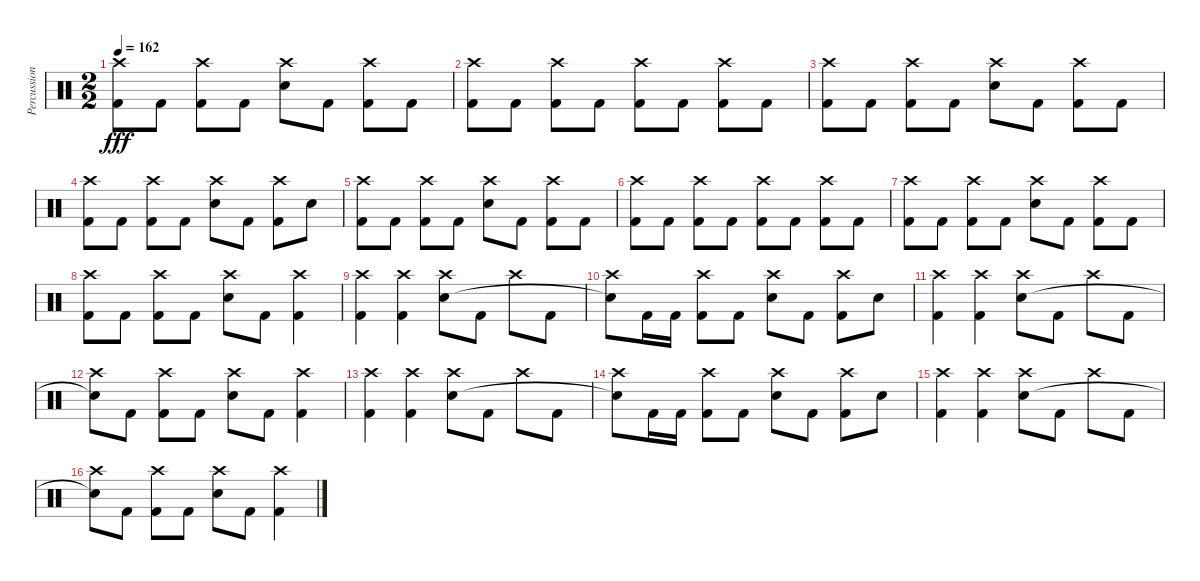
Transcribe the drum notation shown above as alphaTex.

\track ("Percussion" "Percussion") {instrument percussion}
\staff {score}
\articulation defaults
\ts (2 2)
\tempo 162
\clef neutral
\ks c
("Crash high (hit)" "Kick (hit) 2").8{dy fff} "Kick (hit) 2".8 ("Crash high (hit)" "Kick (hit) 2").8 "Kick (hit) 2".8 ("Crash high (hit)" "Snare (hit) 2").8 "Kick (hit) 2".8 ("Crash high (hit)" "Kick (hit) 2").8 "Kick (hit) 2".8 |
("Crash high (hit)" "Kick (hit) 2").8 "Kick (hit) 2".8 ("Crash high (hit)" "Kick (hit) 2").8 "Kick (hit) 2".8 ("Crash high (hit)" "Kick (hit) 2").8 "Kick (hit) 2".8 ("Crash high (hit)" "Kick (hit) 2").8 "Kick (hit) 2".8 |
("Crash high (hit)" "Kick (hit) 2").8 "Kick (hit) 2".8 ("Crash high (hit)" "Kick (hit) 2").8 "Kick (hit) 2".8 ("Crash high (hit)" "Snare (hit) 2").8 "Kick (hit) 2".8 ("Crash high (hit)" "Kick (hit) 2").8 "Kick (hit) 2".8 |
("Crash high (hit)" "Kick (hit) 2").8 "Kick (hit) 2".8 ("Crash high (hit)" "Kick (hit) 2").8 "Kick (hit) 2".8 ("Crash high (hit)" "Snare (hit) 2").8 "Kick (hit) 2".8 ("Crash high (hit)" "Kick (hit) 2").8 "Snare (hit) 2".8 |
("Crash high (hit)" "Kick (hit) 2").8 "Kick (hit) 2".8 ("Crash high (hit)" "Kick (hit) 2").8 "Kick (hit) 2".8 ("Crash high (hit)" "Snare (hit) 2").8 "Kick (hit) 2".8 ("Crash high (hit)" "Kick (hit) 2").8 "Kick (hit) 2".8 |
("Crash high (hit)" "Kick (hit) 2").8 "Kick (hit) 2".8 ("Crash high (hit)" "Kick (hit) 2").8 "Kick (hit) 2".8 ("Crash high (hit)" "Kick (hit) 2").8 "Kick (hit) 2".8 ("Crash high (hit)" "Kick (hit) 2").8 "Kick (hit) 2".8 |
("Crash high (hit)" "Kick (hit) 2").8 "Kick (hit) 2".8 ("Crash high (hit)" "Kick (hit) 2").8 "Kick (hit) 2".8 ("Crash high (hit)" "Snare (hit) 2").8 "Kick (hit) 2".8 ("Crash high (hit)" "Kick (hit) 2").8 "Kick (hit) 2".8 |
("Crash high (hit)" "Kick (hit) 2").8 "Kick (hit) 2".8 ("Crash high (hit)" "Kick (hit) 2").8 "Kick (hit) 2".8 ("Crash high (hit)" "Snare (hit) 2").8 "Kick (hit) 2".8 ("Crash high (hit)" "Kick (hit) 2").4 |
("Crash high (hit)" "Kick (hit) 2").4 ("Crash high (hit)" "Kick (hit) 2").4 ("Crash high (hit)" "Snare (hit) 2").8 "Kick (hit) 2".8 "Crash high (hit)".8 "Kick (hit) 2".8 |
("Crash high (hit)" "Snare (hit)"{t}).8 "Kick (hit) 2".16 "Kick (hit) 2".16 ("Crash high (hit)" "Kick (hit) 2").8 "Kick (hit) 2".8 ("Crash high (hit)" "Snare (hit) 2").8 "Kick (hit) 2".8 ("Crash high (hit)" "Kick (hit) 2").8 "Snare (hit) 2".8 |
("Crash high (hit)" "Kick (hit) 2").4 ("Crash high (hit)" "Kick (hit) 2").4 ("Crash high (hit)" "Snare (hit) 2").8 "Kick (hit) 2".8 "Crash high (hit)".8 "Kick (hit) 2".8 |
("Crash high (hit)" "Snare (hit)"{t}).8 "Kick (hit) 2".8 ("Crash high (hit)" "Kick (hit) 2").8 "Kick (hit) 2".8 ("Crash high (hit)" "Snare (hit) 2").8 "Kick (hit) 2".8 ("Crash high (hit)" "Kick (hit) 2").4 |
("Crash high (hit)" "Kick (hit) 2").4 ("Crash high (hit)" "Kick (hit) 2").4 ("Crash high (hit)" "Snare (hit) 2").8 "Kick (hit) 2".8 "Crash high (hit)".8 "Kick (hit) 2".8 |
("Crash high (hit)" "Snare (hit)"{t}).8 "Kick (hit) 2".16 "Kick (hit) 2".16 ("Crash high (hit)" "Kick (hit) 2").8 "Kick (hit) 2".8 ("Crash high (hit)" "Snare (hit) 2").8 "Kick (hit) 2".8 ("Crash high (hit)" "Kick (hit) 2").8 "Snare (hit) 2".8 |
("Crash high (hit)" "Kick (hit) 2").4 ("Crash high (hit)" "Kick (hit) 2").4 ("Crash high (hit)" "Snare (hit) 2").8 "Kick (hit) 2".8 "Crash high (hit)".8 "Kick (hit) 2".8 |
("Crash high (hit)" "Snare (hit)"{t}).8 "Kick (hit) 2".8 ("Crash high (hit)" "Kick (hit) 2").8 "Kick (hit) 2".8 ("Crash high (hit)" "Snare (hit) 2").8 "Kick (hit) 2".8 ("Crash high (hit)" "Kick (hit) 2").4
